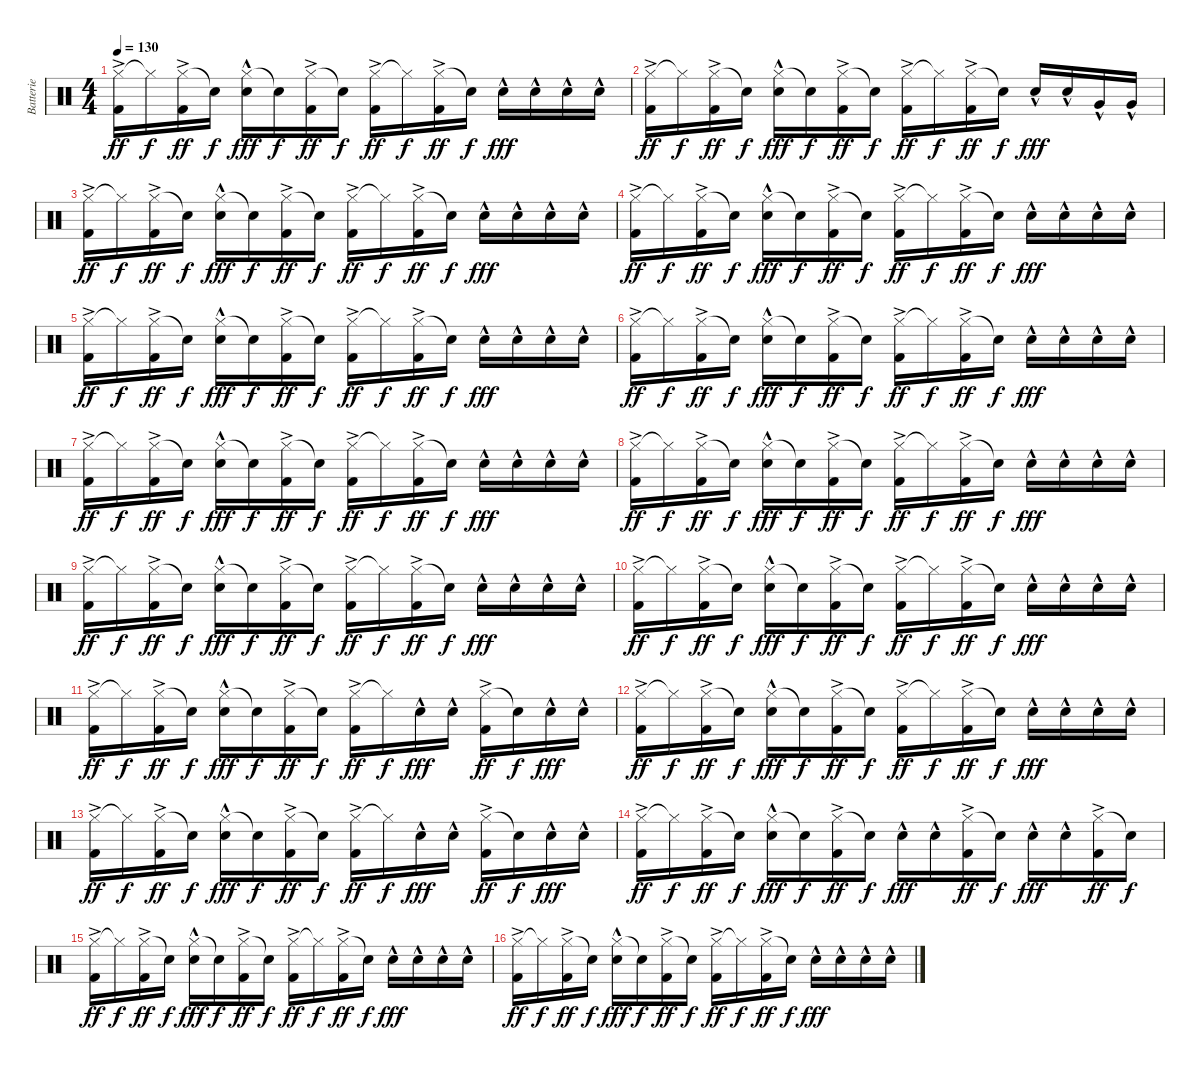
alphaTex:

\track ("Batterie" "Batterie") {instrument percussion}
\staff {score}
\articulation defaults
\ts (4 4)
\tempo 130
\clef neutral
\ks c
("Hi-Hat (closed)"{ac} "Kick (hit) 2"{ac}).16{dy ff} "Hi-Hat (closed)"{t}.16{dy f} ("Hi-Hat (closed)"{ac} "Kick (hit) 2"{ac}).16{dy ff} "Snare (hit)"{t}.16{dy f} ("Hi-Hat (closed)"{hac} "Electric Snare (hit)"{hac}).16{dy fff} "Snare (hit)"{t}.16{dy f} ("Hi-Hat (closed)"{ac} "Kick (hit) 2"{ac}).16{dy ff} "Snare (hit)"{t}.16{dy f} ("Hi-Hat (closed)"{ac} "Kick (hit) 2"{ac}).16{dy ff} "Hi-Hat (closed)"{t}.16{dy f} ("Hi-Hat (closed)"{ac} "Kick (hit) 2"{ac}).16{dy ff} "Snare (hit)"{t}.16{dy f} "Electric Snare (hit)"{hac}.16{dy fff} "Electric Snare (hit)"{hac}.16 "Electric Snare (hit)"{hac}.16 "Electric Snare (hit)"{hac}.16 |
("Hi-Hat (closed)"{ac} "Kick (hit) 2"{ac}).16{dy ff} "Hi-Hat (closed)"{t}.16{dy f} ("Hi-Hat (closed)"{ac} "Kick (hit) 2"{ac}).16{dy ff} "Snare (hit)"{t}.16{dy f} ("Hi-Hat (closed)"{hac} "Electric Snare (hit)"{hac}).16{dy fff} "Snare (hit)"{t}.16{dy f} ("Hi-Hat (closed)"{ac} "Kick (hit) 2"{ac}).16{dy ff} "Snare (hit)"{t}.16{dy f} ("Hi-Hat (closed)"{ac} "Kick (hit) 2"{ac}).16{dy ff} "Hi-Hat (closed)"{t}.16{dy f} ("Hi-Hat (closed)"{ac} "Kick (hit) 2"{ac}).16{dy ff} "Snare (hit)"{t}.16{dy f} "Electric Snare (hit)"{hac}.16{dy fff} "Electric Snare (hit)"{hac}.16 "Very Low Tom (hit)"{hac}.16 "Very Low Tom (hit)"{hac}.16 |
("Hi-Hat (closed)"{ac} "Kick (hit) 2"{ac}).16{dy ff} "Hi-Hat (closed)"{t}.16{dy f} ("Hi-Hat (closed)"{ac} "Kick (hit) 2"{ac}).16{dy ff} "Snare (hit)"{t}.16{dy f} ("Hi-Hat (closed)"{hac} "Electric Snare (hit)"{hac}).16{dy fff} "Snare (hit)"{t}.16{dy f} ("Hi-Hat (closed)"{ac} "Kick (hit) 2"{ac}).16{dy ff} "Snare (hit)"{t}.16{dy f} ("Hi-Hat (closed)"{ac} "Kick (hit) 2"{ac}).16{dy ff} "Hi-Hat (closed)"{t}.16{dy f} ("Hi-Hat (closed)"{ac} "Kick (hit) 2"{ac}).16{dy ff} "Snare (hit)"{t}.16{dy f} "Electric Snare (hit)"{hac}.16{dy fff} "Electric Snare (hit)"{hac}.16 "Electric Snare (hit)"{hac}.16 "Electric Snare (hit)"{hac}.16 |
("Hi-Hat (closed)"{ac} "Kick (hit) 2"{ac}).16{dy ff} "Hi-Hat (closed)"{t}.16{dy f} ("Hi-Hat (closed)"{ac} "Kick (hit) 2"{ac}).16{dy ff} "Snare (hit)"{t}.16{dy f} ("Hi-Hat (closed)"{hac} "Electric Snare (hit)"{hac}).16{dy fff} "Snare (hit)"{t}.16{dy f} ("Hi-Hat (closed)"{ac} "Kick (hit) 2"{ac}).16{dy ff} "Snare (hit)"{t}.16{dy f} ("Hi-Hat (closed)"{ac} "Kick (hit) 2"{ac}).16{dy ff} "Hi-Hat (closed)"{t}.16{dy f} ("Hi-Hat (closed)"{ac} "Kick (hit) 2"{ac}).16{dy ff} "Snare (hit)"{t}.16{dy f} "Electric Snare (hit)"{hac}.16{dy fff} "Electric Snare (hit)"{hac}.16 "Electric Snare (hit)"{hac}.16 "Electric Snare (hit)"{hac}.16 |
("Hi-Hat (closed)"{ac} "Kick (hit) 2"{ac}).16{dy ff} "Hi-Hat (closed)"{t}.16{dy f} ("Hi-Hat (closed)"{ac} "Kick (hit) 2"{ac}).16{dy ff} "Snare (hit)"{t}.16{dy f} ("Hi-Hat (closed)"{hac} "Electric Snare (hit)"{hac}).16{dy fff} "Snare (hit)"{t}.16{dy f} ("Hi-Hat (closed)"{ac} "Kick (hit) 2"{ac}).16{dy ff} "Snare (hit)"{t}.16{dy f} ("Hi-Hat (closed)"{ac} "Kick (hit) 2"{ac}).16{dy ff} "Hi-Hat (closed)"{t}.16{dy f} ("Hi-Hat (closed)"{ac} "Kick (hit) 2"{ac}).16{dy ff} "Snare (hit)"{t}.16{dy f} "Electric Snare (hit)"{hac}.16{dy fff} "Electric Snare (hit)"{hac}.16 "Electric Snare (hit)"{hac}.16 "Electric Snare (hit)"{hac}.16 |
("Hi-Hat (closed)"{ac} "Kick (hit) 2"{ac}).16{dy ff} "Hi-Hat (closed)"{t}.16{dy f} ("Hi-Hat (closed)"{ac} "Kick (hit) 2"{ac}).16{dy ff} "Snare (hit)"{t}.16{dy f} ("Hi-Hat (closed)"{hac} "Electric Snare (hit)"{hac}).16{dy fff} "Snare (hit)"{t}.16{dy f} ("Hi-Hat (closed)"{ac} "Kick (hit) 2"{ac}).16{dy ff} "Snare (hit)"{t}.16{dy f} ("Hi-Hat (closed)"{ac} "Kick (hit) 2"{ac}).16{dy ff} "Hi-Hat (closed)"{t}.16{dy f} ("Hi-Hat (closed)"{ac} "Kick (hit) 2"{ac}).16{dy ff} "Snare (hit)"{t}.16{dy f} "Electric Snare (hit)"{hac}.16{dy fff} "Electric Snare (hit)"{hac}.16 "Electric Snare (hit)"{hac}.16 "Electric Snare (hit)"{hac}.16 |
("Hi-Hat (closed)"{ac} "Kick (hit) 2"{ac}).16{dy ff} "Hi-Hat (closed)"{t}.16{dy f} ("Hi-Hat (closed)"{ac} "Kick (hit) 2"{ac}).16{dy ff} "Snare (hit)"{t}.16{dy f} ("Hi-Hat (closed)"{hac} "Electric Snare (hit)"{hac}).16{dy fff} "Snare (hit)"{t}.16{dy f} ("Hi-Hat (closed)"{ac} "Kick (hit) 2"{ac}).16{dy ff} "Snare (hit)"{t}.16{dy f} ("Hi-Hat (closed)"{ac} "Kick (hit) 2"{ac}).16{dy ff} "Hi-Hat (closed)"{t}.16{dy f} ("Hi-Hat (closed)"{ac} "Kick (hit) 2"{ac}).16{dy ff} "Snare (hit)"{t}.16{dy f} "Electric Snare (hit)"{hac}.16{dy fff} "Electric Snare (hit)"{hac}.16 "Electric Snare (hit)"{hac}.16 "Electric Snare (hit)"{hac}.16 |
("Hi-Hat (closed)"{ac} "Kick (hit) 2"{ac}).16{dy ff} "Hi-Hat (closed)"{t}.16{dy f} ("Hi-Hat (closed)"{ac} "Kick (hit) 2"{ac}).16{dy ff} "Snare (hit)"{t}.16{dy f} ("Hi-Hat (closed)"{hac} "Electric Snare (hit)"{hac}).16{dy fff} "Snare (hit)"{t}.16{dy f} ("Hi-Hat (closed)"{ac} "Kick (hit) 2"{ac}).16{dy ff} "Snare (hit)"{t}.16{dy f} ("Hi-Hat (closed)"{ac} "Kick (hit) 2"{ac}).16{dy ff} "Hi-Hat (closed)"{t}.16{dy f} ("Hi-Hat (closed)"{ac} "Kick (hit) 2"{ac}).16{dy ff} "Snare (hit)"{t}.16{dy f} "Electric Snare (hit)"{hac}.16{dy fff} "Electric Snare (hit)"{hac}.16 "Electric Snare (hit)"{hac}.16 "Electric Snare (hit)"{hac}.16 |
("Hi-Hat (closed)"{ac} "Kick (hit) 2"{ac}).16{dy ff} "Hi-Hat (closed)"{t}.16{dy f} ("Hi-Hat (closed)"{ac} "Kick (hit) 2"{ac}).16{dy ff} "Snare (hit)"{t}.16{dy f} ("Hi-Hat (closed)"{hac} "Electric Snare (hit)"{hac}).16{dy fff} "Snare (hit)"{t}.16{dy f} ("Hi-Hat (closed)"{ac} "Kick (hit) 2"{ac}).16{dy ff} "Snare (hit)"{t}.16{dy f} ("Hi-Hat (closed)"{ac} "Kick (hit) 2"{ac}).16{dy ff} "Hi-Hat (closed)"{t}.16{dy f} ("Hi-Hat (closed)"{ac} "Kick (hit) 2"{ac}).16{dy ff} "Snare (hit)"{t}.16{dy f} "Electric Snare (hit)"{hac}.16{dy fff} "Electric Snare (hit)"{hac}.16 "Electric Snare (hit)"{hac}.16 "Electric Snare (hit)"{hac}.16 |
("Hi-Hat (closed)"{ac} "Kick (hit) 2"{ac}).16{dy ff} "Hi-Hat (closed)"{t}.16{dy f} ("Hi-Hat (closed)"{ac} "Kick (hit) 2"{ac}).16{dy ff} "Snare (hit)"{t}.16{dy f} ("Hi-Hat (closed)"{hac} "Electric Snare (hit)"{hac}).16{dy fff} "Snare (hit)"{t}.16{dy f} ("Hi-Hat (closed)"{ac} "Kick (hit) 2"{ac}).16{dy ff} "Snare (hit)"{t}.16{dy f} ("Hi-Hat (closed)"{ac} "Kick (hit) 2"{ac}).16{dy ff} "Hi-Hat (closed)"{t}.16{dy f} ("Hi-Hat (closed)"{ac} "Kick (hit) 2"{ac}).16{dy ff} "Snare (hit)"{t}.16{dy f} "Electric Snare (hit)"{hac}.16{dy fff} "Electric Snare (hit)"{hac}.16 "Electric Snare (hit)"{hac}.16 "Electric Snare (hit)"{hac}.16 |
("Hi-Hat (closed)"{ac} "Kick (hit) 2"{ac}).16{dy ff} "Hi-Hat (closed)"{t}.16{dy f} ("Hi-Hat (closed)"{ac} "Kick (hit) 2"{ac}).16{dy ff} "Snare (hit)"{t}.16{dy f} ("Hi-Hat (closed)"{hac} "Electric Snare (hit)"{hac}).16{dy fff} "Snare (hit)"{t}.16{dy f} ("Hi-Hat (closed)"{ac} "Kick (hit) 2"{ac}).16{dy ff} "Snare (hit)"{t}.16{dy f} ("Hi-Hat (closed)"{ac} "Kick (hit) 2"{ac}).16{dy ff} "Hi-Hat (closed)"{t}.16{dy f} "Electric Snare (hit)"{hac}.16{dy fff} "Electric Snare (hit)"{hac}.16 ("Hi-Hat (closed)"{ac} "Kick (hit) 2"{ac}).16{dy ff} "Electric Snare (hit)"{t}.16{dy f} "Electric Snare (hit)"{hac}.16{dy fff} "Electric Snare (hit)"{hac}.16 |
("Hi-Hat (closed)"{ac} "Kick (hit) 2"{ac}).16{dy ff} "Hi-Hat (closed)"{t}.16{dy f} ("Hi-Hat (closed)"{ac} "Kick (hit) 2"{ac}).16{dy ff} "Snare (hit)"{t}.16{dy f} ("Hi-Hat (closed)"{hac} "Electric Snare (hit)"{hac}).16{dy fff} "Snare (hit)"{t}.16{dy f} ("Hi-Hat (closed)"{ac} "Kick (hit) 2"{ac}).16{dy ff} "Snare (hit)"{t}.16{dy f} ("Hi-Hat (closed)"{ac} "Kick (hit) 2"{ac}).16{dy ff} "Hi-Hat (closed)"{t}.16{dy f} ("Hi-Hat (closed)"{ac} "Kick (hit) 2"{ac}).16{dy ff} "Snare (hit)"{t}.16{dy f} "Electric Snare (hit)"{hac}.16{dy fff} "Electric Snare (hit)"{hac}.16 "Electric Snare (hit)"{hac}.16 "Electric Snare (hit)"{hac}.16 |
("Hi-Hat (closed)"{ac} "Kick (hit) 2"{ac}).16{dy ff} "Hi-Hat (closed)"{t}.16{dy f} ("Hi-Hat (closed)"{ac} "Kick (hit) 2"{ac}).16{dy ff} "Snare (hit)"{t}.16{dy f} ("Hi-Hat (closed)"{hac} "Electric Snare (hit)"{hac}).16{dy fff} "Snare (hit)"{t}.16{dy f} ("Hi-Hat (closed)"{ac} "Kick (hit) 2"{ac}).16{dy ff} "Snare (hit)"{t}.16{dy f} ("Hi-Hat (closed)"{ac} "Kick (hit) 2"{ac}).16{dy ff} "Hi-Hat (closed)"{t}.16{dy f} "Electric Snare (hit)"{hac}.16{dy fff} "Electric Snare (hit)"{hac}.16 ("Hi-Hat (closed)"{ac} "Kick (hit) 2"{ac}).16{dy ff} "Snare (hit)"{t}.16{dy f} "Electric Snare (hit)"{hac}.16{dy fff} "Electric Snare (hit)"{hac}.16 |
("Hi-Hat (closed)"{ac} "Kick (hit) 2"{ac}).16{dy ff} "Hi-Hat (closed)"{t}.16{dy f} ("Hi-Hat (closed)"{ac} "Kick (hit) 2"{ac}).16{dy ff} "Snare (hit)"{t}.16{dy f} ("Hi-Hat (closed)"{hac} "Electric Snare (hit)"{hac}).16{dy fff} "Snare (hit)"{t}.16{dy f} ("Hi-Hat (closed)"{ac} "Kick (hit) 2"{ac}).16{dy ff} "Snare (hit)"{t}.16{dy f} "Electric Snare (hit)"{hac}.16{dy fff} "Electric Snare (hit)"{hac}.16 ("Hi-Hat (closed)"{ac} "Kick (hit) 2"{ac}).16{dy ff} "Snare (hit)"{t}.16{dy f} "Electric Snare (hit)"{hac}.16{dy fff} "Electric Snare (hit)"{hac}.16 ("Hi-Hat (closed)" "Kick (hit) 2"{ac}).16{dy ff} "Snare (hit)"{t}.16{dy f} |
("Hi-Hat (closed)"{ac} "Kick (hit) 2"{ac}).16{dy ff} "Hi-Hat (closed)"{t}.16{dy f} ("Hi-Hat (closed)"{ac} "Kick (hit) 2"{ac}).16{dy ff} "Snare (hit)"{t}.16{dy f} ("Hi-Hat (closed)"{hac} "Electric Snare (hit)"{hac}).16{dy fff} "Snare (hit)"{t}.16{dy f} ("Hi-Hat (closed)"{ac} "Kick (hit) 2"{ac}).16{dy ff} "Snare (hit)"{t}.16{dy f} ("Hi-Hat (closed)"{ac} "Kick (hit) 2"{ac}).16{dy ff} "Hi-Hat (closed)"{t}.16{dy f} ("Hi-Hat (closed)"{ac} "Kick (hit) 2"{ac}).16{dy ff} "Snare (hit)"{t}.16{dy f} "Electric Snare (hit)"{hac}.16{dy fff} "Electric Snare (hit)"{hac}.16 "Electric Snare (hit)"{hac}.16 "Electric Snare (hit)"{hac}.16 |
("Hi-Hat (closed)"{ac} "Kick (hit) 2"{ac}).16{dy ff} "Hi-Hat (closed)"{t}.16{dy f} ("Hi-Hat (closed)"{ac} "Kick (hit) 2"{ac}).16{dy ff} "Snare (hit)"{t}.16{dy f} ("Hi-Hat (closed)"{hac} "Electric Snare (hit)"{hac}).16{dy fff} "Snare (hit)"{t}.16{dy f} ("Hi-Hat (closed)"{ac} "Kick (hit) 2"{ac}).16{dy ff} "Snare (hit)"{t}.16{dy f} ("Hi-Hat (closed)"{ac} "Kick (hit) 2"{ac}).16{dy ff} "Hi-Hat (closed)"{t}.16{dy f} ("Hi-Hat (closed)"{ac} "Kick (hit) 2"{ac}).16{dy ff} "Snare (hit)"{t}.16{dy f} "Electric Snare (hit)"{hac}.16{dy fff} "Electric Snare (hit)"{hac}.16 "Electric Snare (hit)"{hac}.16 "Electric Snare (hit)"{hac}.16
